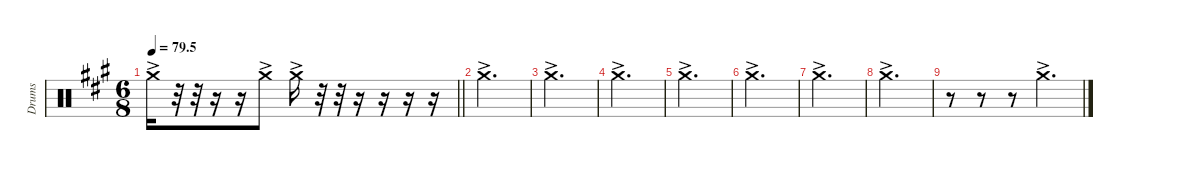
\defaultSystemsLayout 4
\hideDynamics
\bracketExtendMode nobrackets
\otherSystemsTrackNameOrientation horizontal
\track ("Right crash" "Drums") {instrument percussion}
\staff {score}
\articulation defaults
\ts (6 8)
\tempo
79.5
\accidentals auto
\clef neutral
\ottava regular
\simile none
\scale
0.333333
\barLineRight lightlight
\ks a "Crash medium (hit)"{ac acc forcenatural}.16{dy f}
r.32 r.32 r.16 r.16 "Crash medium (hit)"{ac acc forcenatural}.8 "Crash medium (hit)"{ac acc forcenatural}.16 r.32 r.32 r.16 r.16 r.16 r.16 |
\scale
0.333333 "Crash medium (hit)"{ac acc forcenatural}.2{d} |
\scale
0.333333 "Crash medium (hit)"{ac acc forcenatural}.2{d} |
\scale
0.333333 "Crash medium (hit)"{ac acc forcenatural}.2{d} |
\scale
0.333333 "Crash medium (hit)"{ac acc forcenatural}.2{d} |
\scale
0.333333 "Crash medium (hit)"{ac acc forcenatural}.2{d} |
\scale
0.333333 "Crash medium (hit)"{ac acc forcenatural}.2{d} |
\scale
0.333333 "Crash medium (hit)"{ac acc forcenatural}.2{d} |
\scale
0.333333 r.8 r.8 r.8 "Crash medium (hit)"{ac acc forcenatural}.4{d} |
\scale
0.333333 |
\scale
0.333333 |
\scale
0.333333
